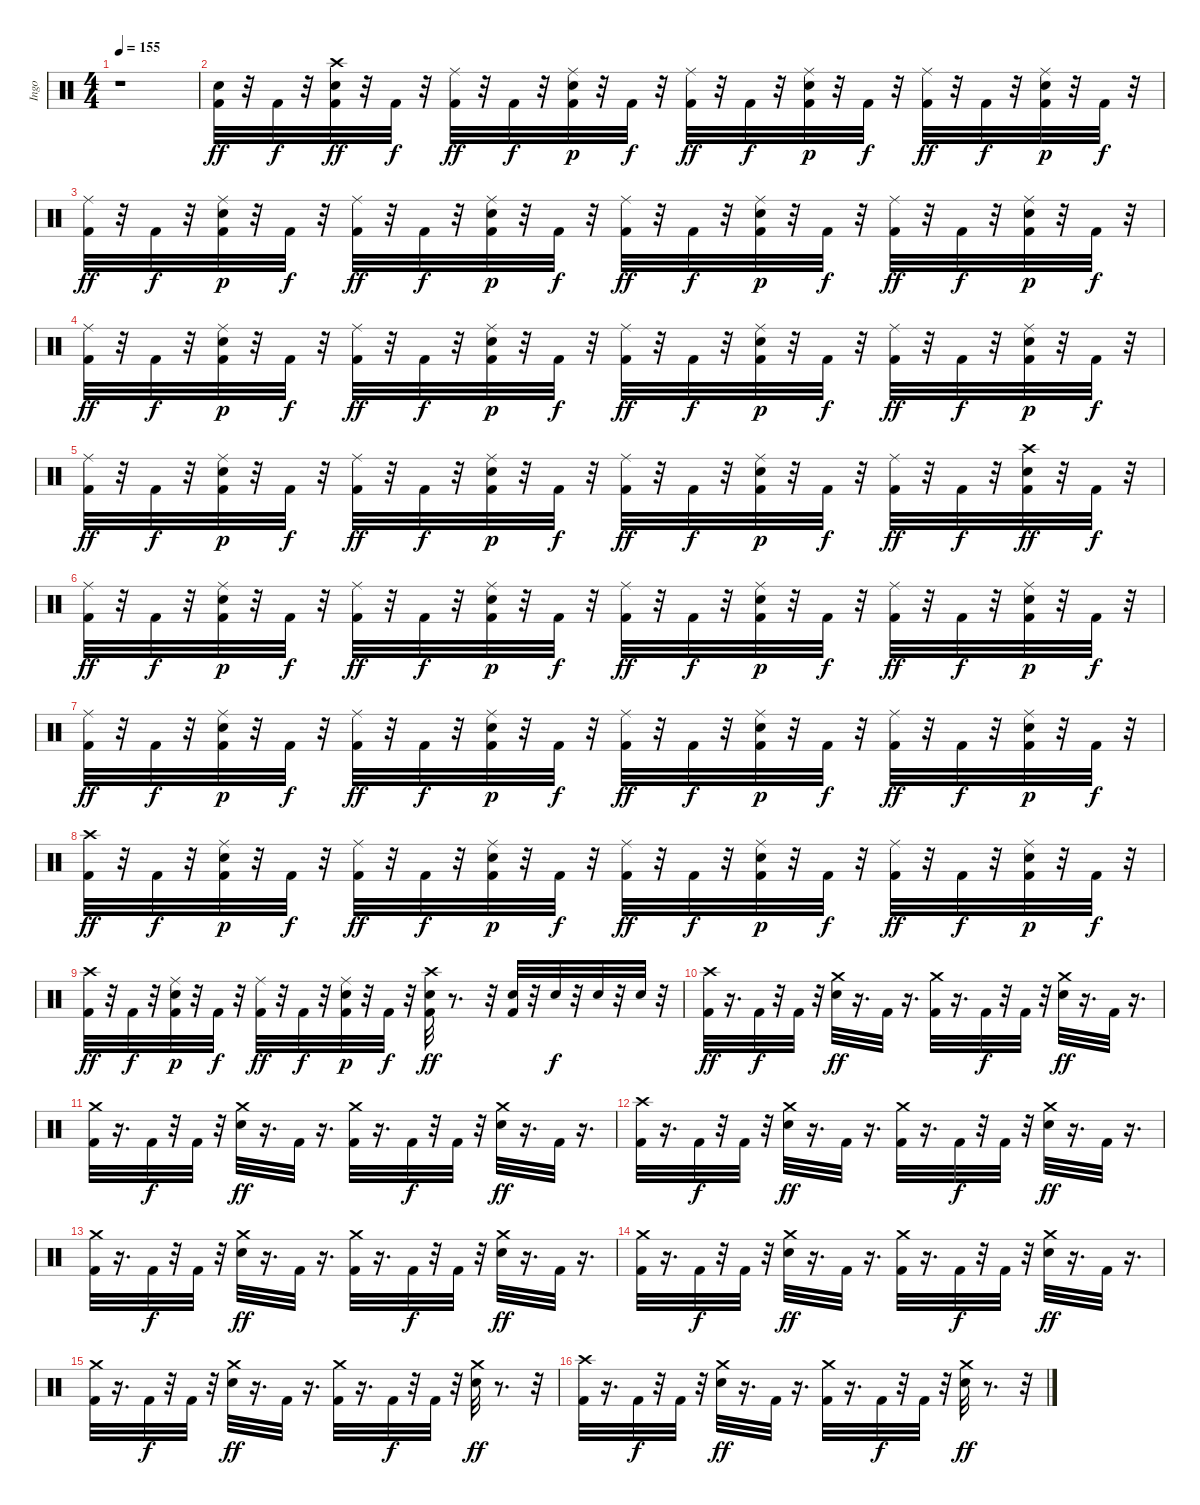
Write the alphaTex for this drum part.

\track ("Ingo" "Ingo") {instrument percussion}
\staff {score}
\articulation defaults
\ts (4 4)
\tempo 155
\clef neutral
\ks c
r.1{dy ff} |
("Snare (hit) 2" "Kick (hit) 2").32 r.32 "Kick (hit) 2".32{dy f} r.32 ("Kick (hit) 2" "Snare (hit) 2" "Crash high (hit)").32{dy ff} r.32 "Kick (hit) 2".32{dy f} r.32 ("Ride (middle)" "Kick (hit) 2").32{dy ff} r.32 "Kick (hit) 2".32{dy f} r.32 ("Kick (hit) 2" "Snare (hit) 2" "Ride (middle)").32{dy p} r.32 "Kick (hit) 2".32{dy f} r.32 ("Ride (middle)" "Kick (hit) 2").32{dy ff} r.32 "Kick (hit) 2".32{dy f} r.32 ("Kick (hit) 2" "Snare (hit) 2" "Ride (middle)").32{dy p} r.32 "Kick (hit) 2".32{dy f} r.32 ("Ride (middle)" "Kick (hit) 2").32{dy ff} r.32 "Kick (hit) 2".32{dy f} r.32 ("Kick (hit) 2" "Snare (hit) 2" "Ride (middle)").32{dy p} r.32 "Kick (hit) 2".32{dy f} r.32 |
("Ride (middle)" "Kick (hit) 2").32{dy ff} r.32 "Kick (hit) 2".32{dy f} r.32 ("Kick (hit) 2" "Snare (hit) 2" "Ride (middle)").32{dy p} r.32 "Kick (hit) 2".32{dy f} r.32 ("Ride (middle)" "Kick (hit) 2").32{dy ff} r.32 "Kick (hit) 2".32{dy f} r.32 ("Kick (hit) 2" "Snare (hit) 2" "Ride (middle)").32{dy p} r.32 "Kick (hit) 2".32{dy f} r.32 ("Ride (middle)" "Kick (hit) 2").32{dy ff} r.32 "Kick (hit) 2".32{dy f} r.32 ("Kick (hit) 2" "Snare (hit) 2" "Ride (middle)").32{dy p} r.32 "Kick (hit) 2".32{dy f} r.32 ("Ride (middle)" "Kick (hit) 2").32{dy ff} r.32 "Kick (hit) 2".32{dy f} r.32 ("Kick (hit) 2" "Snare (hit) 2" "Ride (middle)").32{dy p} r.32 "Kick (hit) 2".32{dy f} r.32 |
("Ride (middle)" "Kick (hit) 2").32{dy ff} r.32 "Kick (hit) 2".32{dy f} r.32 ("Kick (hit) 2" "Snare (hit) 2" "Ride (middle)").32{dy p} r.32 "Kick (hit) 2".32{dy f} r.32 ("Ride (middle)" "Kick (hit) 2").32{dy ff} r.32 "Kick (hit) 2".32{dy f} r.32 ("Kick (hit) 2" "Snare (hit) 2" "Ride (middle)").32{dy p} r.32 "Kick (hit) 2".32{dy f} r.32 ("Ride (middle)" "Kick (hit) 2").32{dy ff} r.32 "Kick (hit) 2".32{dy f} r.32 ("Kick (hit) 2" "Snare (hit) 2" "Ride (middle)").32{dy p} r.32 "Kick (hit) 2".32{dy f} r.32 ("Ride (middle)" "Kick (hit) 2").32{dy ff} r.32 "Kick (hit) 2".32{dy f} r.32 ("Kick (hit) 2" "Snare (hit) 2" "Ride (middle)").32{dy p} r.32 "Kick (hit) 2".32{dy f} r.32 |
("Ride (middle)" "Kick (hit) 2").32{dy ff} r.32 "Kick (hit) 2".32{dy f} r.32 ("Kick (hit) 2" "Snare (hit) 2" "Ride (middle)").32{dy p} r.32 "Kick (hit) 2".32{dy f} r.32 ("Ride (middle)" "Kick (hit) 2").32{dy ff} r.32 "Kick (hit) 2".32{dy f} r.32 ("Kick (hit) 2" "Snare (hit) 2" "Ride (middle)").32{dy p} r.32 "Kick (hit) 2".32{dy f} r.32 ("Ride (middle)" "Kick (hit) 2").32{dy ff} r.32 "Kick (hit) 2".32{dy f} r.32 ("Kick (hit) 2" "Snare (hit) 2" "Ride (middle)").32{dy p} r.32 "Kick (hit) 2".32{dy f} r.32 ("Ride (middle)" "Kick (hit) 2").32{dy ff} r.32 "Kick (hit) 2".32{dy f} r.32 ("Snare (hit) 2" "Crash high (hit)" "Kick (hit) 2").32{dy ff} r.32 "Kick (hit) 2".32{dy f} r.32 |
("Ride (middle)" "Kick (hit) 2").32{dy ff} r.32 "Kick (hit) 2".32{dy f} r.32 ("Kick (hit) 2" "Snare (hit) 2" "Ride (middle)").32{dy p} r.32 "Kick (hit) 2".32{dy f} r.32 ("Ride (middle)" "Kick (hit) 2").32{dy ff} r.32 "Kick (hit) 2".32{dy f} r.32 ("Kick (hit) 2" "Snare (hit) 2" "Ride (middle)").32{dy p} r.32 "Kick (hit) 2".32{dy f} r.32 ("Ride (middle)" "Kick (hit) 2").32{dy ff} r.32 "Kick (hit) 2".32{dy f} r.32 ("Kick (hit) 2" "Snare (hit) 2" "Ride (middle)").32{dy p} r.32 "Kick (hit) 2".32{dy f} r.32 ("Ride (middle)" "Kick (hit) 2").32{dy ff} r.32 "Kick (hit) 2".32{dy f} r.32 ("Kick (hit) 2" "Snare (hit) 2" "Ride (middle)").32{dy p} r.32 "Kick (hit) 2".32{dy f} r.32 |
("Ride (middle)" "Kick (hit) 2").32{dy ff} r.32 "Kick (hit) 2".32{dy f} r.32 ("Kick (hit) 2" "Snare (hit) 2" "Ride (middle)").32{dy p} r.32 "Kick (hit) 2".32{dy f} r.32 ("Ride (middle)" "Kick (hit) 2").32{dy ff} r.32 "Kick (hit) 2".32{dy f} r.32 ("Kick (hit) 2" "Snare (hit) 2" "Ride (middle)").32{dy p} r.32 "Kick (hit) 2".32{dy f} r.32 ("Ride (middle)" "Kick (hit) 2").32{dy ff} r.32 "Kick (hit) 2".32{dy f} r.32 ("Kick (hit) 2" "Snare (hit) 2" "Ride (middle)").32{dy p} r.32 "Kick (hit) 2".32{dy f} r.32 ("Ride (middle)" "Kick (hit) 2").32{dy ff} r.32 "Kick (hit) 2".32{dy f} r.32 ("Kick (hit) 2" "Snare (hit) 2" "Ride (middle)").32{dy p} r.32 "Kick (hit) 2".32{dy f} r.32 |
("Crash high (hit)" "Kick (hit) 2").32{dy ff} r.32 "Kick (hit) 2".32{dy f} r.32 ("Kick (hit) 2" "Snare (hit) 2" "Ride (middle)").32{dy p} r.32 "Kick (hit) 2".32{dy f} r.32 ("Ride (middle)" "Kick (hit) 2").32{dy ff} r.32 "Kick (hit) 2".32{dy f} r.32 ("Kick (hit) 2" "Snare (hit) 2" "Ride (middle)").32{dy p} r.32 "Kick (hit) 2".32{dy f} r.32 ("Ride (middle)" "Kick (hit) 2").32{dy ff} r.32 "Kick (hit) 2".32{dy f} r.32 ("Kick (hit) 2" "Snare (hit) 2" "Ride (middle)").32{dy p} r.32 "Kick (hit) 2".32{dy f} r.32 ("Ride (middle)" "Kick (hit) 2").32{dy ff} r.32 "Kick (hit) 2".32{dy f} r.32 ("Kick (hit) 2" "Snare (hit) 2" "Ride (middle)").32{dy p} r.32 "Kick (hit) 2".32{dy f} r.32 |
("Crash high (hit)" "Kick (hit) 2").32{dy ff} r.32 "Kick (hit) 2".32{dy f} r.32 ("Kick (hit) 2" "Snare (hit) 2" "Ride (middle)").32{dy p} r.32 "Kick (hit) 2".32{dy f} r.32 ("Ride (middle)" "Kick (hit) 2").32{dy ff} r.32 "Kick (hit) 2".32{dy f} r.32 ("Kick (hit) 2" "Snare (hit) 2" "Ride (middle)").32{dy p} r.32 "Kick (hit) 2".32{dy f} r.32 ("Kick (hit) 2" "Crash high (hit)" "Snare (hit) 2").32{dy ff} r.8{d} r.32 ("Snare (hit) 2" "Kick (hit) 2").32 r.32 "Snare (hit) 2".32{dy f} r.32 "Snare (hit) 2".32 r.32 "Snare (hit) 2".32 r.32 |
("Crash high (hit)" "Kick (hit) 2").32{dy ff} r.16{d} "Kick (hit) 2".32{dy f} r.32 "Kick (hit) 2".32 r.32 ("Crash medium (hit)" "Snare (hit) 2").32{dy ff} r.16{d} "Kick (hit) 2".32 r.16{d} ("Crash medium (hit)" "Kick (hit) 2").32 r.16{d} "Kick (hit) 2".32{dy f} r.32 "Kick (hit) 2".32 r.32 ("Crash medium (hit)" "Snare (hit) 2").32{dy ff} r.16{d} "Kick (hit) 2".32 r.16{d} |
("Crash medium (hit)" "Kick (hit) 2").32 r.16{d} "Kick (hit) 2".32{dy f} r.32 "Kick (hit) 2".32 r.32 ("Crash medium (hit)" "Snare (hit) 2").32{dy ff} r.16{d} "Kick (hit) 2".32 r.16{d} ("Crash medium (hit)" "Kick (hit) 2").32 r.16{d} "Kick (hit) 2".32{dy f} r.32 "Kick (hit) 2".32 r.32 ("Crash medium (hit)" "Snare (hit) 2").32{dy ff} r.16{d} "Kick (hit) 2".32 r.16{d} |
("Crash high (hit)" "Kick (hit) 2").32 r.16{d} "Kick (hit) 2".32{dy f} r.32 "Kick (hit) 2".32 r.32 ("Crash medium (hit)" "Snare (hit) 2").32{dy ff} r.16{d} "Kick (hit) 2".32 r.16{d} ("Crash medium (hit)" "Kick (hit) 2").32 r.16{d} "Kick (hit) 2".32{dy f} r.32 "Kick (hit) 2".32 r.32 ("Crash medium (hit)" "Snare (hit) 2").32{dy ff} r.16{d} "Kick (hit) 2".32 r.16{d} |
("Crash medium (hit)" "Kick (hit) 2").32 r.16{d} "Kick (hit) 2".32{dy f} r.32 "Kick (hit) 2".32 r.32 ("Crash medium (hit)" "Snare (hit) 2").32{dy ff} r.16{d} "Kick (hit) 2".32 r.16{d} ("Crash medium (hit)" "Kick (hit) 2").32 r.16{d} "Kick (hit) 2".32{dy f} r.32 "Kick (hit) 2".32 r.32 ("Crash medium (hit)" "Snare (hit) 2").32{dy ff} r.16{d} "Kick (hit) 2".32 r.16{d} |
("Crash medium (hit)" "Kick (hit) 2").32 r.16{d} "Kick (hit) 2".32{dy f} r.32 "Kick (hit) 2".32 r.32 ("Crash medium (hit)" "Snare (hit) 2").32{dy ff} r.16{d} "Kick (hit) 2".32 r.16{d} ("Crash medium (hit)" "Kick (hit) 2").32 r.16{d} "Kick (hit) 2".32{dy f} r.32 "Kick (hit) 2".32 r.32 ("Crash medium (hit)" "Snare (hit) 2").32{dy ff} r.16{d} "Kick (hit) 2".32 r.16{d} |
("Crash medium (hit)" "Kick (hit) 2").32 r.16{d} "Kick (hit) 2".32{dy f} r.32 "Kick (hit) 2".32 r.32 ("Crash medium (hit)" "Snare (hit) 2").32{dy ff} r.16{d} "Kick (hit) 2".32 r.16{d} ("Crash medium (hit)" "Kick (hit) 2").32 r.16{d} "Kick (hit) 2".32{dy f} r.32 "Kick (hit) 2".32 r.32 ("Crash medium (hit)" "Snare (hit) 2").32{dy ff} r.8{d} r.32 |
("Crash high (hit)" "Kick (hit) 2").32 r.16{d} "Kick (hit) 2".32{dy f} r.32 "Kick (hit) 2".32 r.32 ("Crash medium (hit)" "Snare (hit) 2").32{dy ff} r.16{d} "Kick (hit) 2".32 r.16{d} ("Crash medium (hit)" "Kick (hit) 2").32 r.16{d} "Kick (hit) 2".32{dy f} r.32 "Kick (hit) 2".32 r.32 ("Crash medium (hit)" "Snare (hit) 2").32{dy ff} r.8{d} r.32
